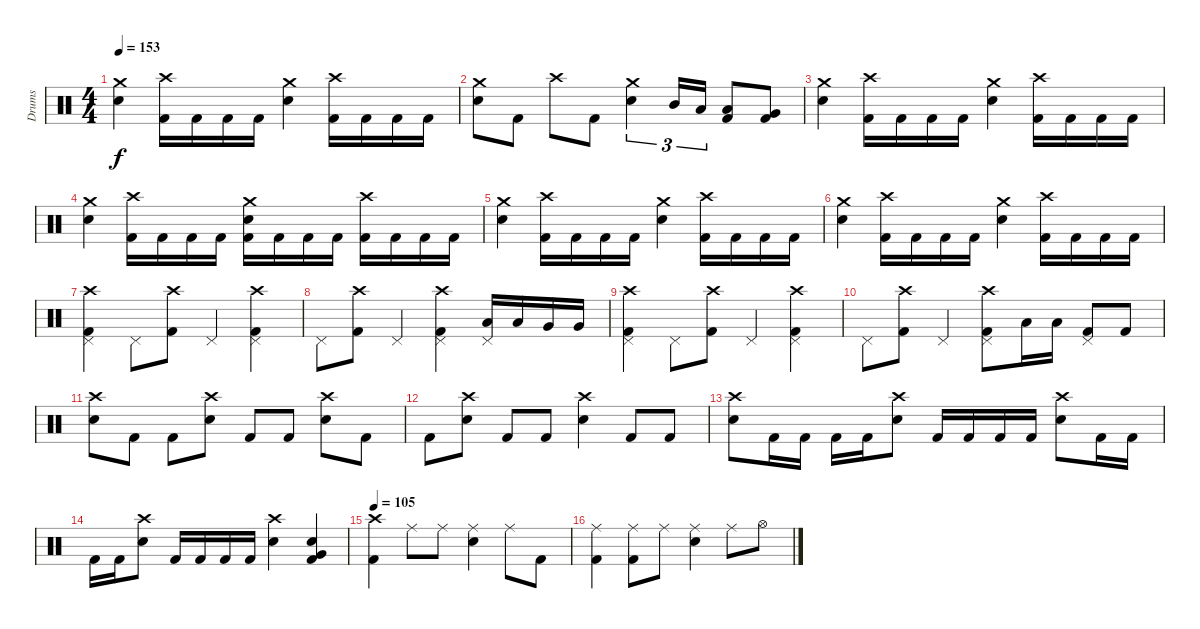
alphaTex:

\track ("Drums" "Drums") {instrument percussion}
\staff {score}
\articulation defaults
\ts (4 4)
\tempo 153
\clef neutral
\ks c
("Crash medium (hit)" "Electric Snare (hit)").4{dy f} ("Crash high (hit)" "Kick (hit) 2").16 "Kick (hit) 2".16 "Kick (hit) 2".16 "Kick (hit) 2".16 ("Crash medium (hit)" "Electric Snare (hit)").4 ("Crash high (hit)" "Kick (hit) 2").16 "Kick (hit) 2".16 "Kick (hit) 2".16 "Kick (hit) 2".16 |
("Crash medium (hit)" "Electric Snare (hit)").8 "Kick (hit) 2".8 "Crash high (hit)".8 "Kick (hit) 2".8 ("Crash medium (hit)" "Electric Snare (hit)").4{tu (3 2)} "Mid Tom (hit)".16{tu (3 2)} "Low Tom (hit)".16{tu (3 2)} ("Low Tom (hit)" "Kick (hit) 2").8 ("Very Low Tom (hit)" "Kick (hit) 2").8 |
("Crash medium (hit)" "Electric Snare (hit)").4 ("Crash high (hit)" "Kick (hit) 2").16 "Kick (hit) 2".16 "Kick (hit) 2".16 "Kick (hit) 2".16 ("Crash medium (hit)" "Electric Snare (hit)").4 ("Crash high (hit)" "Kick (hit) 2").16 "Kick (hit) 2".16 "Kick (hit) 2".16 "Kick (hit) 2".16 |
("Crash medium (hit)" "Electric Snare (hit)").4 ("Crash high (hit)" "Kick (hit) 2").16 "Kick (hit) 2".16 "Kick (hit) 2".16 "Kick (hit) 2".16 ("Crash medium (hit)" "Electric Snare (hit)" "Kick (hit) 2").16 "Kick (hit) 2".16 "Kick (hit) 2".16 "Kick (hit) 2".16 ("Crash high (hit)" "Kick (hit) 2").16 "Kick (hit) 2".16 "Kick (hit) 2".16 "Kick (hit) 2".16 |
("Crash medium (hit)" "Electric Snare (hit)").4 ("Crash high (hit)" "Kick (hit) 2").16 "Kick (hit) 2".16 "Kick (hit) 2".16 "Kick (hit) 2".16 ("Crash medium (hit)" "Electric Snare (hit)").4 ("Crash high (hit)" "Kick (hit) 2").16 "Kick (hit) 2".16 "Kick (hit) 2".16 "Kick (hit) 2".16 |
("Crash medium (hit)" "Electric Snare (hit)").4 ("Crash high (hit)" "Kick (hit) 2").16 "Kick (hit) 2".16 "Kick (hit) 2".16 "Kick (hit) 2".16 ("Crash medium (hit)" "Electric Snare (hit)").4 ("Crash high (hit)" "Kick (hit) 2").16 "Kick (hit) 2".16 "Kick (hit) 2".16 "Kick (hit) 2".16 |
("Crash high (hit)" "Pedal Hi-Hat (hit)" "Kick (hit) 2").4 "Pedal Hi-Hat (hit)".8 ("Crash high (hit)" "Kick (hit) 2").8 "Pedal Hi-Hat (hit)".4 ("Crash high (hit)" "Pedal Hi-Hat (hit)" "Kick (hit) 2").4 |
"Pedal Hi-Hat (hit)".8 ("Crash high (hit)" "Kick (hit) 2").8 "Pedal Hi-Hat (hit)".4 ("Crash high (hit)" "Pedal Hi-Hat (hit)" "Kick (hit) 2").4 ("Pedal Hi-Hat (hit)" "Low Tom (hit)").16 "Low Tom (hit)".16 "Very Low Tom (hit)".16 "Very Low Tom (hit)".16 |
("Crash high (hit)" "Pedal Hi-Hat (hit)" "Kick (hit) 2").4 "Pedal Hi-Hat (hit)".8 ("Crash high (hit)" "Kick (hit) 2").8 "Pedal Hi-Hat (hit)".4 ("Crash high (hit)" "Pedal Hi-Hat (hit)" "Kick (hit) 2").4 |
"Pedal Hi-Hat (hit)".8 ("Crash high (hit)" "Kick (hit) 2").8 "Pedal Hi-Hat (hit)".4 ("Crash high (hit)" "Pedal Hi-Hat (hit)" "Kick (hit) 2").8 "Low Tom (hit)".16 "Low Tom (hit)".16 ("Pedal Hi-Hat (hit)" "Kick (hit) 2").8 "Kick (hit) 2".8 |
("Crash high (hit)" "Electric Snare (hit)").8 "Kick (hit) 2".8 "Kick (hit) 2".8 ("Crash high (hit)" "Electric Snare (hit)").8 "Kick (hit) 2".8 "Kick (hit) 2".8 ("Crash high (hit)" "Electric Snare (hit)").8 "Kick (hit) 2".8 |
"Kick (hit) 2".8 ("Crash high (hit)" "Electric Snare (hit)").8 "Kick (hit) 2".8 "Kick (hit) 2".8 ("Crash high (hit)" "Electric Snare (hit)").4 "Kick (hit) 2".8 "Kick (hit) 2".8 |
("Crash high (hit)" "Electric Snare (hit)").8 "Kick (hit) 2".16 "Kick (hit) 2".16 "Kick (hit) 2".16 "Kick (hit) 2".16 ("Crash high (hit)" "Electric Snare (hit)").8 "Kick (hit) 2".16 "Kick (hit) 2".16 "Kick (hit) 2".16 "Kick (hit) 2".16 ("Crash high (hit)" "Electric Snare (hit)").8 "Kick (hit) 2".16 "Kick (hit) 2".16 |
"Kick (hit) 2".16 "Kick (hit) 2".16 ("Crash high (hit)" "Electric Snare (hit)").8 "Kick (hit) 2".16 "Kick (hit) 2".16 "Kick (hit) 2".16 "Kick (hit) 2".16 ("Crash high (hit)" "Electric Snare (hit)").4 ("Very Low Tom (hit)" "Electric Snare (hit)" "Kick (hit) 2").4 |
\tempo 105
("Crash high (hit)" "Kick (hit) 2").4 "Ride (middle)".8 "Ride (middle)".8 ("Ride (middle)" "Electric Snare (hit)").4 "Ride (middle)".8 "Kick (hit) 2".8 |
("Ride (middle)" "Kick (hit) 2").4 ("Ride (middle)" "Kick (hit) 2").8 "Ride (middle)".8 ("Ride (middle)" "Electric Snare (hit)").4 "Ride (middle)".8 "Hi-Hat (open)".8
